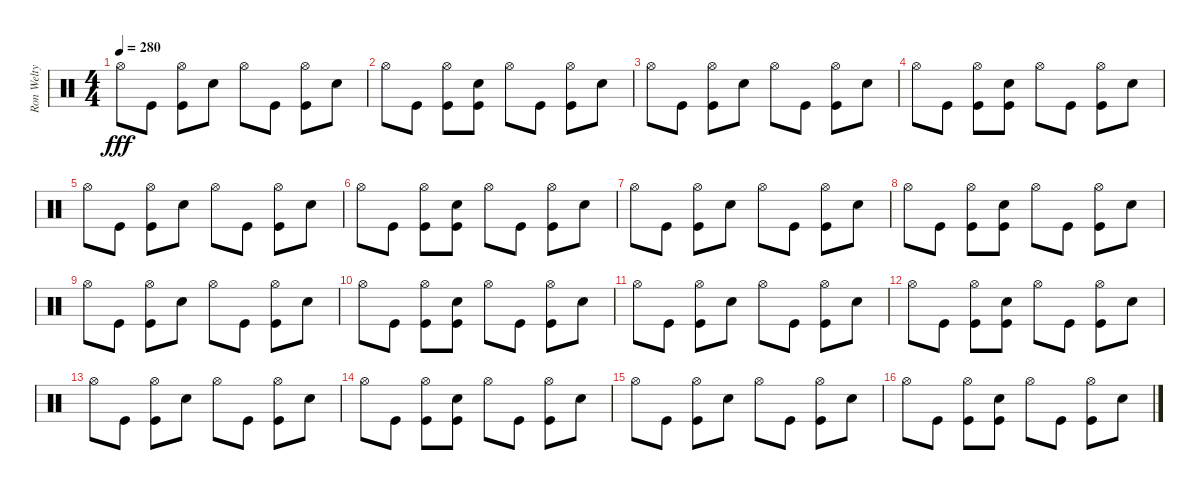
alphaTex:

\track ("Ron Welty" "Ron Welty") {instrument percussion}
\staff {score}
\articulation defaults
\ts (4 4)
\tempo 280
\clef neutral
\ks c "Hi-Hat (open)".8{dy fff} "Kick (hit)".8
("Hi-Hat (open)" "Kick (hit)").8 "Snare (hit) 2".8 "Hi-Hat (open)".8 "Kick (hit)".8 ("Hi-Hat (open)" "Kick (hit)").8 "Snare (hit) 2".8 |
"Hi-Hat (open)".8 "Kick (hit)".8 ("Hi-Hat (open)" "Kick (hit)").8 ("Snare (hit) 2" "Kick (hit)").8 "Hi-Hat (open)".8 "Kick (hit)".8 ("Hi-Hat (open)" "Kick (hit)").8 "Snare (hit) 2".8 |
"Hi-Hat (open)".8 "Kick (hit)".8 ("Hi-Hat (open)" "Kick (hit)").8 "Snare (hit) 2".8 "Hi-Hat (open)".8 "Kick (hit)".8 ("Hi-Hat (open)" "Kick (hit)").8 "Snare (hit) 2".8 |
"Hi-Hat (open)".8 "Kick (hit)".8 ("Hi-Hat (open)" "Kick (hit)").8 ("Snare (hit) 2" "Kick (hit)").8 "Hi-Hat (open)".8 "Kick (hit)".8 ("Hi-Hat (open)" "Kick (hit)").8 "Snare (hit) 2".8 |
"Hi-Hat (open)".8 "Kick (hit)".8 ("Hi-Hat (open)" "Kick (hit)").8 "Snare (hit) 2".8 "Hi-Hat (open)".8 "Kick (hit)".8 ("Hi-Hat (open)" "Kick (hit)").8 "Snare (hit) 2".8 |
"Hi-Hat (open)".8 "Kick (hit)".8 ("Hi-Hat (open)" "Kick (hit)").8 ("Snare (hit) 2" "Kick (hit)").8 "Hi-Hat (open)".8 "Kick (hit)".8 ("Hi-Hat (open)" "Kick (hit)").8 "Snare (hit) 2".8 |
"Hi-Hat (open)".8 "Kick (hit)".8 ("Hi-Hat (open)" "Kick (hit)").8 "Snare (hit) 2".8 "Hi-Hat (open)".8 "Kick (hit)".8 ("Hi-Hat (open)" "Kick (hit)").8 "Snare (hit) 2".8 |
"Hi-Hat (open)".8 "Kick (hit)".8 ("Hi-Hat (open)" "Kick (hit)").8 ("Snare (hit) 2" "Kick (hit)").8 "Hi-Hat (open)".8 "Kick (hit)".8 ("Hi-Hat (open)" "Kick (hit)").8 "Snare (hit) 2".8 |
"Hi-Hat (open)".8 "Kick (hit)".8 ("Hi-Hat (open)" "Kick (hit)").8 "Snare (hit) 2".8 "Hi-Hat (open)".8 "Kick (hit)".8 ("Hi-Hat (open)" "Kick (hit)").8 "Snare (hit) 2".8 |
"Hi-Hat (open)".8 "Kick (hit)".8 ("Hi-Hat (open)" "Kick (hit)").8 ("Snare (hit) 2" "Kick (hit)").8 "Hi-Hat (open)".8 "Kick (hit)".8 ("Hi-Hat (open)" "Kick (hit)").8 "Snare (hit) 2".8 |
"Hi-Hat (open)".8 "Kick (hit)".8 ("Hi-Hat (open)" "Kick (hit)").8 "Snare (hit) 2".8 "Hi-Hat (open)".8 "Kick (hit)".8 ("Hi-Hat (open)" "Kick (hit)").8 "Snare (hit) 2".8 |
"Hi-Hat (open)".8 "Kick (hit)".8 ("Hi-Hat (open)" "Kick (hit)").8 ("Snare (hit) 2" "Kick (hit)").8 "Hi-Hat (open)".8 "Kick (hit)".8 ("Hi-Hat (open)" "Kick (hit)").8 "Snare (hit) 2".8 |
"Hi-Hat (open)".8 "Kick (hit)".8 ("Hi-Hat (open)" "Kick (hit)").8 "Snare (hit) 2".8 "Hi-Hat (open)".8 "Kick (hit)".8 ("Hi-Hat (open)" "Kick (hit)").8 "Snare (hit) 2".8 |
"Hi-Hat (open)".8 "Kick (hit)".8 ("Hi-Hat (open)" "Kick (hit)").8 ("Snare (hit) 2" "Kick (hit)").8 "Hi-Hat (open)".8 "Kick (hit)".8 ("Hi-Hat (open)" "Kick (hit)").8 "Snare (hit) 2".8 |
"Hi-Hat (open)".8 "Kick (hit)".8 ("Hi-Hat (open)" "Kick (hit)").8 "Snare (hit) 2".8 "Hi-Hat (open)".8 "Kick (hit)".8 ("Hi-Hat (open)" "Kick (hit)").8 "Snare (hit) 2".8 |
"Hi-Hat (open)".8 "Kick (hit)".8 ("Hi-Hat (open)" "Kick (hit)").8 ("Snare (hit) 2" "Kick (hit)").8 "Hi-Hat (open)".8 "Kick (hit)".8 ("Hi-Hat (open)" "Kick (hit)").8 "Snare (hit) 2".8
